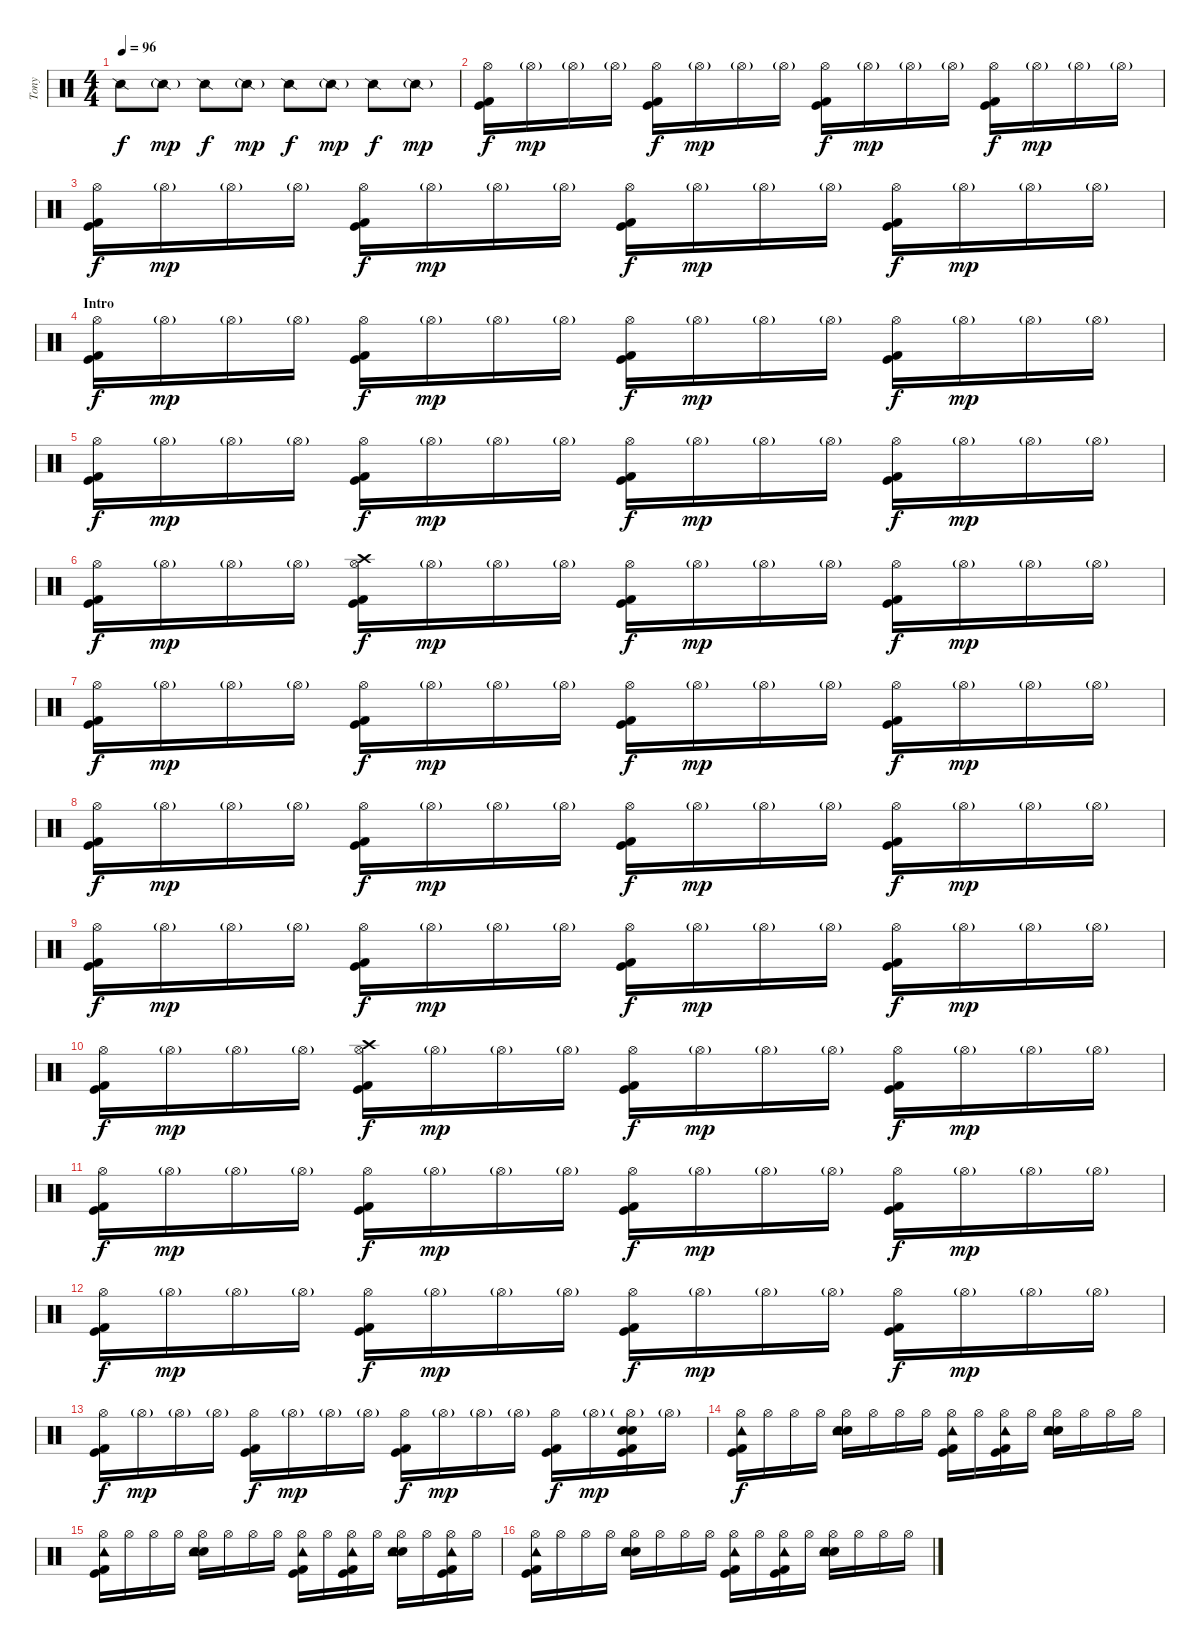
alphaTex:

\track ("Tony" "Tony") {instrument percussion}
\staff {score}
\articulation defaults
\ts (4 4)
\tempo 96
\clef neutral
\ks c "Snare (side stick) 2".8{dy f} "Snare (side stick) 2"{g}.8{dy mp} "Snare (side stick) 2".8{dy f} "Snare (side stick) 2"{g}.8{dy mp} "Snare (side stick) 2".8{dy f} "Snare (side stick) 2"{g}.8{dy mp} "Snare (side stick) 2".8{dy f} "Snare (side stick) 2"{g}.8{dy mp}
|
("Kick (hit)" "Kick (hit) 2" "Hi-Hat (open)").16{dy f} "Hi-Hat (open)"{g}.16{dy mp} "Hi-Hat (open)"{g}.16 "Hi-Hat (open)"{g}.16 ("Kick (hit)" "Kick (hit) 2" "Hi-Hat (open)").16{dy f} "Hi-Hat (open)"{g}.16{dy mp} "Hi-Hat (open)"{g}.16 "Hi-Hat (open)"{g}.16 ("Kick (hit)" "Kick (hit) 2" "Hi-Hat (open)").16{dy f} "Hi-Hat (open)"{g}.16{dy mp} "Hi-Hat (open)"{g}.16 "Hi-Hat (open)"{g}.16 ("Kick (hit)" "Kick (hit) 2" "Hi-Hat (open)").16{dy f} "Hi-Hat (open)"{g}.16{dy mp} "Hi-Hat (open)"{g}.16 "Hi-Hat (open)"{g}.16 |
("Kick (hit)" "Kick (hit) 2" "Hi-Hat (open)").16{dy f} "Hi-Hat (open)"{g}.16{dy mp} "Hi-Hat (open)"{g}.16 "Hi-Hat (open)"{g}.16 ("Kick (hit)" "Kick (hit) 2" "Hi-Hat (open)").16{dy f} "Hi-Hat (open)"{g}.16{dy mp} "Hi-Hat (open)"{g}.16 "Hi-Hat (open)"{g}.16 ("Kick (hit)" "Kick (hit) 2" "Hi-Hat (open)").16{dy f} "Hi-Hat (open)"{g}.16{dy mp} "Hi-Hat (open)"{g}.16 "Hi-Hat (open)"{g}.16 ("Kick (hit)" "Kick (hit) 2" "Hi-Hat (open)").16{dy f} "Hi-Hat (open)"{g}.16{dy mp} "Hi-Hat (open)"{g}.16 "Hi-Hat (open)"{g}.16 |
\section ("" "Intro")
("Kick (hit)" "Kick (hit) 2" "Hi-Hat (open)").16{dy f} "Hi-Hat (open)"{g}.16{dy mp} "Hi-Hat (open)"{g}.16 "Hi-Hat (open)"{g}.16 ("Kick (hit)" "Kick (hit) 2" "Hi-Hat (open)").16{dy f} "Hi-Hat (open)"{g}.16{dy mp} "Hi-Hat (open)"{g}.16 "Hi-Hat (open)"{g}.16 ("Kick (hit)" "Kick (hit) 2" "Hi-Hat (open)").16{dy f} "Hi-Hat (open)"{g}.16{dy mp} "Hi-Hat (open)"{g}.16 "Hi-Hat (open)"{g}.16 ("Kick (hit)" "Kick (hit) 2" "Hi-Hat (open)").16{dy f} "Hi-Hat (open)"{g}.16{dy mp} "Hi-Hat (open)"{g}.16 "Hi-Hat (open)"{g}.16 |
("Kick (hit)" "Kick (hit) 2" "Hi-Hat (open)").16{dy f} "Hi-Hat (open)"{g}.16{dy mp} "Hi-Hat (open)"{g}.16 "Hi-Hat (open)"{g}.16 ("Kick (hit)" "Kick (hit) 2" "Hi-Hat (open)").16{dy f} "Hi-Hat (open)"{g}.16{dy mp} "Hi-Hat (open)"{g}.16 "Hi-Hat (open)"{g}.16 ("Kick (hit)" "Kick (hit) 2" "Hi-Hat (open)").16{dy f} "Hi-Hat (open)"{g}.16{dy mp} "Hi-Hat (open)"{g}.16 "Hi-Hat (open)"{g}.16 ("Kick (hit)" "Kick (hit) 2" "Hi-Hat (open)").16{dy f} "Hi-Hat (open)"{g}.16{dy mp} "Hi-Hat (open)"{g}.16 "Hi-Hat (open)"{g}.16 |
("Kick (hit)" "Kick (hit) 2" "Hi-Hat (open)").16{dy f} "Hi-Hat (open)"{g}.16{dy mp} "Hi-Hat (open)"{g}.16 "Hi-Hat (open)"{g}.16 ("Crash high (hit)" "Kick (hit)" "Kick (hit) 2" "Hi-Hat (open)").16{dy f} "Hi-Hat (open)"{g}.16{dy mp} "Hi-Hat (open)"{g}.16 "Hi-Hat (open)"{g}.16 ("Kick (hit)" "Kick (hit) 2" "Hi-Hat (open)").16{dy f} "Hi-Hat (open)"{g}.16{dy mp} "Hi-Hat (open)"{g}.16 "Hi-Hat (open)"{g}.16 ("Kick (hit)" "Kick (hit) 2" "Hi-Hat (open)").16{dy f} "Hi-Hat (open)"{g}.16{dy mp} "Hi-Hat (open)"{g}.16 "Hi-Hat (open)"{g}.16 |
("Kick (hit)" "Kick (hit) 2" "Hi-Hat (open)").16{dy f} "Hi-Hat (open)"{g}.16{dy mp} "Hi-Hat (open)"{g}.16 "Hi-Hat (open)"{g}.16 ("Kick (hit)" "Kick (hit) 2" "Hi-Hat (open)").16{dy f} "Hi-Hat (open)"{g}.16{dy mp} "Hi-Hat (open)"{g}.16 "Hi-Hat (open)"{g}.16 ("Kick (hit)" "Kick (hit) 2" "Hi-Hat (open)").16{dy f} "Hi-Hat (open)"{g}.16{dy mp} "Hi-Hat (open)"{g}.16 "Hi-Hat (open)"{g}.16 ("Kick (hit)" "Kick (hit) 2" "Hi-Hat (open)").16{dy f} "Hi-Hat (open)"{g}.16{dy mp} "Hi-Hat (open)"{g}.16 "Hi-Hat (open)"{g}.16 |
("Kick (hit)" "Kick (hit) 2" "Hi-Hat (open)").16{dy f} "Hi-Hat (open)"{g}.16{dy mp} "Hi-Hat (open)"{g}.16 "Hi-Hat (open)"{g}.16 ("Kick (hit)" "Kick (hit) 2" "Hi-Hat (open)").16{dy f} "Hi-Hat (open)"{g}.16{dy mp} "Hi-Hat (open)"{g}.16 "Hi-Hat (open)"{g}.16 ("Kick (hit)" "Kick (hit) 2" "Hi-Hat (open)").16{dy f} "Hi-Hat (open)"{g}.16{dy mp} "Hi-Hat (open)"{g}.16 "Hi-Hat (open)"{g}.16 ("Kick (hit)" "Kick (hit) 2" "Hi-Hat (open)").16{dy f} "Hi-Hat (open)"{g}.16{dy mp} "Hi-Hat (open)"{g}.16 "Hi-Hat (open)"{g}.16 |
("Kick (hit)" "Kick (hit) 2" "Hi-Hat (open)").16{dy f} "Hi-Hat (open)"{g}.16{dy mp} "Hi-Hat (open)"{g}.16 "Hi-Hat (open)"{g}.16 ("Kick (hit)" "Kick (hit) 2" "Hi-Hat (open)").16{dy f} "Hi-Hat (open)"{g}.16{dy mp} "Hi-Hat (open)"{g}.16 "Hi-Hat (open)"{g}.16 ("Kick (hit)" "Kick (hit) 2" "Hi-Hat (open)").16{dy f} "Hi-Hat (open)"{g}.16{dy mp} "Hi-Hat (open)"{g}.16 "Hi-Hat (open)"{g}.16 ("Kick (hit)" "Kick (hit) 2" "Hi-Hat (open)").16{dy f} "Hi-Hat (open)"{g}.16{dy mp} "Hi-Hat (open)"{g}.16 "Hi-Hat (open)"{g}.16 |
("Kick (hit)" "Kick (hit) 2" "Hi-Hat (open)").16{dy f} "Hi-Hat (open)"{g}.16{dy mp} "Hi-Hat (open)"{g}.16 "Hi-Hat (open)"{g}.16 ("Crash high (hit)" "Kick (hit)" "Kick (hit) 2" "Hi-Hat (open)").16{dy f} "Hi-Hat (open)"{g}.16{dy mp} "Hi-Hat (open)"{g}.16 "Hi-Hat (open)"{g}.16 ("Kick (hit)" "Kick (hit) 2" "Hi-Hat (open)").16{dy f} "Hi-Hat (open)"{g}.16{dy mp} "Hi-Hat (open)"{g}.16 "Hi-Hat (open)"{g}.16 ("Kick (hit)" "Kick (hit) 2" "Hi-Hat (open)").16{dy f} "Hi-Hat (open)"{g}.16{dy mp} "Hi-Hat (open)"{g}.16 "Hi-Hat (open)"{g}.16 |
("Kick (hit)" "Kick (hit) 2" "Hi-Hat (open)").16{dy f} "Hi-Hat (open)"{g}.16{dy mp} "Hi-Hat (open)"{g}.16 "Hi-Hat (open)"{g}.16 ("Kick (hit)" "Kick (hit) 2" "Hi-Hat (open)").16{dy f} "Hi-Hat (open)"{g}.16{dy mp} "Hi-Hat (open)"{g}.16 "Hi-Hat (open)"{g}.16 ("Kick (hit)" "Kick (hit) 2" "Hi-Hat (open)").16{dy f} "Hi-Hat (open)"{g}.16{dy mp} "Hi-Hat (open)"{g}.16 "Hi-Hat (open)"{g}.16 ("Kick (hit)" "Kick (hit) 2" "Hi-Hat (open)").16{dy f} "Hi-Hat (open)"{g}.16{dy mp} "Hi-Hat (open)"{g}.16 "Hi-Hat (open)"{g}.16 |
("Kick (hit)" "Kick (hit) 2" "Hi-Hat (open)").16{dy f} "Hi-Hat (open)"{g}.16{dy mp} "Hi-Hat (open)"{g}.16 "Hi-Hat (open)"{g}.16 ("Kick (hit)" "Kick (hit) 2" "Hi-Hat (open)").16{dy f} "Hi-Hat (open)"{g}.16{dy mp} "Hi-Hat (open)"{g}.16 "Hi-Hat (open)"{g}.16 ("Kick (hit)" "Kick (hit) 2" "Hi-Hat (open)").16{dy f} "Hi-Hat (open)"{g}.16{dy mp} "Hi-Hat (open)"{g}.16 "Hi-Hat (open)"{g}.16 ("Kick (hit)" "Kick (hit) 2" "Hi-Hat (open)").16{dy f} "Hi-Hat (open)"{g}.16{dy mp} "Hi-Hat (open)"{g}.16 "Hi-Hat (open)"{g}.16 |
("Kick (hit)" "Kick (hit) 2" "Hi-Hat (open)").16{dy f} "Hi-Hat (open)"{g}.16{dy mp} "Hi-Hat (open)"{g}.16 "Hi-Hat (open)"{g}.16 ("Kick (hit)" "Kick (hit) 2" "Hi-Hat (open)").16{dy f} "Hi-Hat (open)"{g}.16{dy mp} "Hi-Hat (open)"{g}.16 "Hi-Hat (open)"{g}.16 ("Kick (hit)" "Kick (hit) 2" "Hi-Hat (open)").16{dy f} "Hi-Hat (open)"{g}.16{dy mp} "Hi-Hat (open)"{g}.16 "Hi-Hat (open)"{g}.16 ("Kick (hit)" "Kick (hit) 2" "Hi-Hat (open)").16{dy f volume 16} "Hi-Hat (open)"{g}.16{dy mp} ("Snare (hit) 2" "Electric Snare (hit)" "Kick (hit)" "Kick (hit) 2" "Hi-Hat (open)"{g}).16 "Hi-Hat (open)"{g}.16 |
("Kick (hit)" "Kick (hit) 2" "Tambourine (hit)" "Hi-Hat (open)").16{dy f} "Hi-Hat (open)".16 "Hi-Hat (open)".16 "Hi-Hat (open)".16 ("Electric Snare (hit)" "Snare (hit) 2" "Tambourine (hit)" "Hi-Hat (open)").16 "Hi-Hat (open)".16 "Hi-Hat (open)".16 "Hi-Hat (open)".16 ("Kick (hit)" "Kick (hit) 2" "Tambourine (hit)" "Hi-Hat (open)").16 "Hi-Hat (open)".16 ("Kick (hit)" "Kick (hit) 2" "Tambourine (hit)" "Hi-Hat (open)").16 "Hi-Hat (open)".16 ("Electric Snare (hit)" "Snare (hit) 2" "Tambourine (hit)" "Hi-Hat (open)").16 "Hi-Hat (open)".16 "Hi-Hat (open)".16 "Hi-Hat (open)".16 |
("Kick (hit)" "Kick (hit) 2" "Tambourine (hit)" "Hi-Hat (open)").16 "Hi-Hat (open)".16 "Hi-Hat (open)".16 "Hi-Hat (open)".16 ("Electric Snare (hit)" "Snare (hit) 2" "Tambourine (hit)" "Hi-Hat (open)").16 "Hi-Hat (open)".16 "Hi-Hat (open)".16 "Hi-Hat (open)".16 ("Kick (hit)" "Kick (hit) 2" "Tambourine (hit)" "Hi-Hat (open)").16 "Hi-Hat (open)".16 ("Kick (hit)" "Kick (hit) 2" "Tambourine (hit)" "Hi-Hat (open)").16 "Hi-Hat (open)".16 ("Electric Snare (hit)" "Snare (hit) 2" "Tambourine (hit)" "Hi-Hat (open)").16 "Hi-Hat (open)".16 ("Kick (hit)" "Kick (hit) 2" "Tambourine (hit)" "Hi-Hat (open)").16 "Hi-Hat (open)".16 |
("Kick (hit)" "Kick (hit) 2" "Tambourine (hit)" "Hi-Hat (open)").16 "Hi-Hat (open)".16 "Hi-Hat (open)".16 "Hi-Hat (open)".16 ("Electric Snare (hit)" "Snare (hit) 2" "Tambourine (hit)" "Hi-Hat (open)").16 "Hi-Hat (open)".16 "Hi-Hat (open)".16 "Hi-Hat (open)".16 ("Kick (hit)" "Kick (hit) 2" "Tambourine (hit)" "Hi-Hat (open)").16 "Hi-Hat (open)".16 ("Kick (hit)" "Kick (hit) 2" "Tambourine (hit)" "Hi-Hat (open)").16 "Hi-Hat (open)".16 ("Electric Snare (hit)" "Snare (hit) 2" "Tambourine (hit)" "Hi-Hat (open)").16 "Hi-Hat (open)".16 "Hi-Hat (open)".16 "Hi-Hat (open)".16
